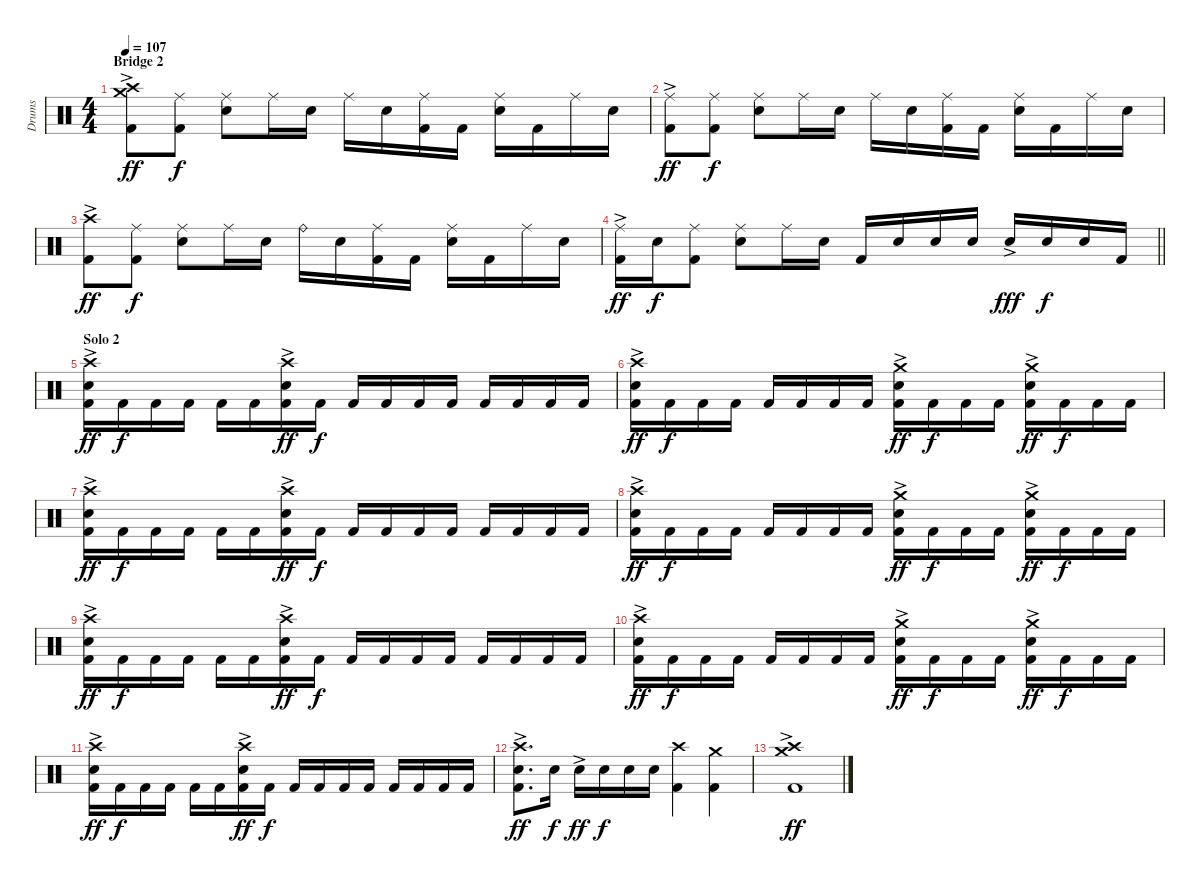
\track ("Drums" "Drums") {instrument percussion}
\staff {score}
\articulation defaults
\ts (4 4)
\section ("" "Bridge 2")
\tempo 107
\clef neutral
\ks c
("Crash high (hit)" "Crash medium (hit)" "Kick (hit) 2"{ac}).8{dy ff} ("Ride (middle)" "Kick (hit) 2").8{dy f} ("Ride (middle)" "Electric Snare (hit)").8 "Ride (middle)".16 "Electric Snare (hit)".16 "Ride (middle)".16 "Electric Snare (hit)".16 ("Ride (middle)" "Kick (hit) 2").16 "Kick (hit) 2".16 ("Ride (middle)" "Electric Snare (hit)").16 "Kick (hit) 2".16 "Ride (middle)".16 "Electric Snare (hit)".16 |
("Ride (middle)" "Kick (hit) 2"{ac}).8{dy ff} ("Ride (middle)" "Kick (hit) 2").8{dy f} ("Ride (middle)" "Electric Snare (hit)").8 "Ride (middle)".16 "Electric Snare (hit)".16 "Ride (middle)".16 "Electric Snare (hit)".16 ("Ride (middle)" "Kick (hit) 2").16 "Kick (hit) 2".16 ("Ride (middle)" "Electric Snare (hit)").16 "Kick (hit) 2".16 "Ride (middle)".16 "Electric Snare (hit)".16 |
("Crash high (hit)" "Kick (hit) 2"{ac}).8{dy ff} ("Ride (middle)" "Kick (hit) 2").8{dy f} ("Ride (middle)" "Electric Snare (hit)").8 "Ride (middle)".16 "Electric Snare (hit)".16 "Ride (bell)".16 "Electric Snare (hit)".16 ("Ride (middle)" "Kick (hit) 2").16 "Kick (hit) 2".16 ("Ride (middle)" "Electric Snare (hit)").16 "Kick (hit) 2".16 "Ride (middle)".16 "Electric Snare (hit)".16 |
\barLineRight lightlight
("Ride (middle)" "Kick (hit) 2"{ac}).16{dy ff} "Electric Snare (hit)".16{dy f} ("Ride (middle)" "Kick (hit) 2").8 ("Ride (middle)" "Electric Snare (hit)").8 "Ride (middle)".16 "Electric Snare (hit)".16 "Kick (hit) 2".16 "Electric Snare (hit)".16 "Electric Snare (hit)".16 "Electric Snare (hit)".16 "Electric Snare (hit)"{ac}.16{dy fff} "Electric Snare (hit)".16{dy f} "Electric Snare (hit)".16 "Kick (hit) 2".16 |
\section ("" "Solo 2")
("Crash high (hit)" "Electric Snare (hit)" "Kick (hit) 2"{ac}).16{dy ff} "Kick (hit) 2".16{dy f} "Kick (hit) 2".16 "Kick (hit) 2".16 "Kick (hit) 2".16 "Kick (hit) 2".16 ("Crash high (hit)" "Electric Snare (hit)" "Kick (hit) 2"{ac}).16{dy ff} "Kick (hit) 2".16{dy f} "Kick (hit) 2".16 "Kick (hit) 2".16 "Kick (hit) 2".16 "Kick (hit) 2".16 "Kick (hit) 2".16 "Kick (hit) 2".16 "Kick (hit) 2".16 "Kick (hit) 2".16 |
("Crash high (hit)" "Electric Snare (hit)" "Kick (hit) 2"{ac}).16{dy ff} "Kick (hit) 2".16{dy f} "Kick (hit) 2".16 "Kick (hit) 2".16 "Kick (hit) 2".16 "Kick (hit) 2".16 "Kick (hit) 2".16 "Kick (hit) 2".16 ("Crash medium (hit)" "Electric Snare (hit)" "Kick (hit) 2"{ac}).16{dy ff} "Kick (hit) 2".16{dy f} "Kick (hit) 2".16 "Kick (hit) 2".16 ("Crash medium (hit)" "Electric Snare (hit)" "Kick (hit) 2"{ac}).16{dy ff} "Kick (hit) 2".16{dy f} "Kick (hit) 2".16 "Kick (hit) 2".16 |
("Crash high (hit)" "Electric Snare (hit)" "Kick (hit) 2"{ac}).16{dy ff} "Kick (hit) 2".16{dy f} "Kick (hit) 2".16 "Kick (hit) 2".16 "Kick (hit) 2".16 "Kick (hit) 2".16 ("Crash high (hit)" "Electric Snare (hit)" "Kick (hit) 2"{ac}).16{dy ff} "Kick (hit) 2".16{dy f} "Kick (hit) 2".16 "Kick (hit) 2".16 "Kick (hit) 2".16 "Kick (hit) 2".16 "Kick (hit) 2".16 "Kick (hit) 2".16 "Kick (hit) 2".16 "Kick (hit) 2".16 |
("Crash high (hit)" "Electric Snare (hit)" "Kick (hit) 2"{ac}).16{dy ff} "Kick (hit) 2".16{dy f} "Kick (hit) 2".16 "Kick (hit) 2".16 "Kick (hit) 2".16 "Kick (hit) 2".16 "Kick (hit) 2".16 "Kick (hit) 2".16 ("Crash medium (hit)" "Electric Snare (hit)" "Kick (hit) 2"{ac}).16{dy ff} "Kick (hit) 2".16{dy f} "Kick (hit) 2".16 "Kick (hit) 2".16 ("Crash medium (hit)" "Electric Snare (hit)" "Kick (hit) 2"{ac}).16{dy ff} "Kick (hit) 2".16{dy f} "Kick (hit) 2".16 "Kick (hit) 2".16 |
("Crash high (hit)" "Electric Snare (hit)" "Kick (hit) 2"{ac}).16{dy ff} "Kick (hit) 2".16{dy f} "Kick (hit) 2".16 "Kick (hit) 2".16 "Kick (hit) 2".16 "Kick (hit) 2".16 ("Crash high (hit)" "Electric Snare (hit)" "Kick (hit) 2"{ac}).16{dy ff} "Kick (hit) 2".16{dy f} "Kick (hit) 2".16 "Kick (hit) 2".16 "Kick (hit) 2".16 "Kick (hit) 2".16 "Kick (hit) 2".16 "Kick (hit) 2".16 "Kick (hit) 2".16 "Kick (hit) 2".16 |
("Crash high (hit)" "Electric Snare (hit)" "Kick (hit) 2"{ac}).16{dy ff} "Kick (hit) 2".16{dy f} "Kick (hit) 2".16 "Kick (hit) 2".16 "Kick (hit) 2".16 "Kick (hit) 2".16 "Kick (hit) 2".16 "Kick (hit) 2".16 ("Crash medium (hit)" "Electric Snare (hit)" "Kick (hit) 2"{ac}).16{dy ff} "Kick (hit) 2".16{dy f} "Kick (hit) 2".16 "Kick (hit) 2".16 ("Crash medium (hit)" "Electric Snare (hit)" "Kick (hit) 2"{ac}).16{dy ff} "Kick (hit) 2".16{dy f} "Kick (hit) 2".16 "Kick (hit) 2".16 |
("Crash high (hit)" "Electric Snare (hit)" "Kick (hit) 2"{ac}).16{dy ff} "Kick (hit) 2".16{dy f} "Kick (hit) 2".16 "Kick (hit) 2".16 "Kick (hit) 2".16 "Kick (hit) 2".16 ("Crash high (hit)" "Electric Snare (hit)" "Kick (hit) 2"{ac}).16{dy ff} "Kick (hit) 2".16{dy f} "Kick (hit) 2".16 "Kick (hit) 2".16 "Kick (hit) 2".16 "Kick (hit) 2".16 "Kick (hit) 2".16 "Kick (hit) 2".16 "Kick (hit) 2".16 "Kick (hit) 2".16 |
("Crash high (hit)" "Electric Snare (hit)" "Kick (hit) 2"{ac}).8{d dy ff} "Electric Snare (hit)".16{dy f} "Electric Snare (hit)"{ac}.16{dy ff} "Electric Snare (hit)".16{dy f} "Electric Snare (hit)".16 "Electric Snare (hit)".16 ("Crash high (hit)" "Kick (hit) 2").4 ("Crash medium (hit)" "Kick (hit) 2").4 |
("Crash high (hit)" "Crash medium (hit)" "Kick (hit) 2"{ac}).1{dy ff}
